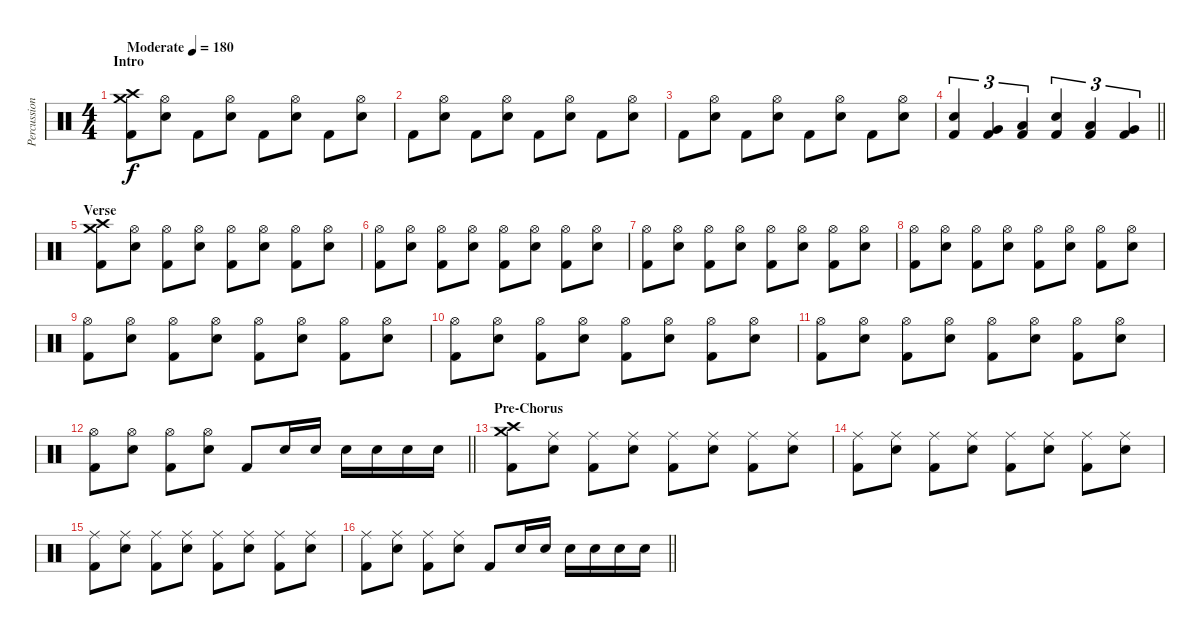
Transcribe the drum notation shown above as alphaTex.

\track ("Percussion" "Percussion") {instrument percussion}
\staff {score}
\articulation defaults
\ts (4 4)
\section ("" "Intro")
\tempo (180 "Moderate")
\clef neutral
\ks c
("Crash high (hit)" "Crash medium (hit)" "Kick (hit) 2").8{dy f} ("Hi-Hat (open)" "Electric Snare (hit)").8 "Kick (hit) 2".8 ("Hi-Hat (open)" "Electric Snare (hit)").8 "Kick (hit) 2".8 ("Hi-Hat (open)" "Electric Snare (hit)").8 "Kick (hit) 2".8 ("Hi-Hat (open)" "Electric Snare (hit)").8 |
"Kick (hit) 2".8 ("Hi-Hat (open)" "Electric Snare (hit)").8 "Kick (hit) 2".8 ("Hi-Hat (open)" "Electric Snare (hit)").8 "Kick (hit) 2".8 ("Hi-Hat (open)" "Electric Snare (hit)").8 "Kick (hit) 2".8 ("Hi-Hat (open)" "Electric Snare (hit)").8 |
"Kick (hit) 2".8 ("Hi-Hat (open)" "Electric Snare (hit)").8 "Kick (hit) 2".8 ("Hi-Hat (open)" "Electric Snare (hit)").8 "Kick (hit) 2".8 ("Hi-Hat (open)" "Electric Snare (hit)").8 "Kick (hit) 2".8 ("Hi-Hat (open)" "Electric Snare (hit)").8 |
\barLineRight lightlight
("Electric Snare (hit)" "Kick (hit) 2").4{tu (3 2)} ("Very Low Tom (hit)" "Kick (hit) 2").4{tu (3 2)} ("Low Floor Tom (hit)" "Kick (hit) 2").4{tu (3 2)} ("Electric Snare (hit)" "Kick (hit) 2").4{tu (3 2)} ("Low Floor Tom (hit)" "Kick (hit) 2").4{tu (3 2)} ("Very Low Tom (hit)" "Kick (hit) 2").4{tu (3 2)} |
\section ("" "Verse")
("Crash high (hit)" "Crash medium (hit)" "Kick (hit) 2").8 ("Hi-Hat (open)" "Electric Snare (hit)").8 ("Hi-Hat (open)" "Kick (hit) 2").8 ("Hi-Hat (open)" "Electric Snare (hit)").8 ("Hi-Hat (open)" "Kick (hit) 2").8 ("Hi-Hat (open)" "Electric Snare (hit)").8 ("Hi-Hat (open)" "Kick (hit) 2").8 ("Hi-Hat (open)" "Electric Snare (hit)").8 |
("Hi-Hat (open)" "Kick (hit) 2").8 ("Hi-Hat (open)" "Electric Snare (hit)").8 ("Hi-Hat (open)" "Kick (hit) 2").8 ("Hi-Hat (open)" "Electric Snare (hit)").8 ("Hi-Hat (open)" "Kick (hit) 2").8 ("Hi-Hat (open)" "Electric Snare (hit)").8 ("Hi-Hat (open)" "Kick (hit) 2").8 ("Hi-Hat (open)" "Electric Snare (hit)").8 |
("Hi-Hat (open)" "Kick (hit) 2").8 ("Hi-Hat (open)" "Electric Snare (hit)").8 ("Hi-Hat (open)" "Kick (hit) 2").8 ("Hi-Hat (open)" "Electric Snare (hit)").8 ("Hi-Hat (open)" "Kick (hit) 2").8 ("Hi-Hat (open)" "Electric Snare (hit)").8 ("Hi-Hat (open)" "Kick (hit) 2").8 ("Hi-Hat (open)" "Electric Snare (hit)").8 |
("Hi-Hat (open)" "Kick (hit) 2").8 ("Hi-Hat (open)" "Electric Snare (hit)").8 ("Hi-Hat (open)" "Kick (hit) 2").8 ("Hi-Hat (open)" "Electric Snare (hit)").8 ("Hi-Hat (open)" "Kick (hit) 2").8 ("Hi-Hat (open)" "Electric Snare (hit)").8 ("Hi-Hat (open)" "Kick (hit) 2").8 ("Hi-Hat (open)" "Electric Snare (hit)").8 |
("Hi-Hat (open)" "Kick (hit) 2").8 ("Hi-Hat (open)" "Electric Snare (hit)").8 ("Hi-Hat (open)" "Kick (hit) 2").8 ("Hi-Hat (open)" "Electric Snare (hit)").8 ("Hi-Hat (open)" "Kick (hit) 2").8 ("Hi-Hat (open)" "Electric Snare (hit)").8 ("Hi-Hat (open)" "Kick (hit) 2").8 ("Hi-Hat (open)" "Electric Snare (hit)").8 |
("Hi-Hat (open)" "Kick (hit) 2").8 ("Hi-Hat (open)" "Electric Snare (hit)").8 ("Hi-Hat (open)" "Kick (hit) 2").8 ("Hi-Hat (open)" "Electric Snare (hit)").8 ("Hi-Hat (open)" "Kick (hit) 2").8 ("Hi-Hat (open)" "Electric Snare (hit)").8 ("Hi-Hat (open)" "Kick (hit) 2").8 ("Hi-Hat (open)" "Electric Snare (hit)").8 |
("Hi-Hat (open)" "Kick (hit) 2").8 ("Hi-Hat (open)" "Electric Snare (hit)").8 ("Hi-Hat (open)" "Kick (hit) 2").8 ("Hi-Hat (open)" "Electric Snare (hit)").8 ("Hi-Hat (open)" "Kick (hit) 2").8 ("Hi-Hat (open)" "Electric Snare (hit)").8 ("Hi-Hat (open)" "Kick (hit) 2").8 ("Hi-Hat (open)" "Electric Snare (hit)").8 |
\barLineRight lightlight
("Hi-Hat (open)" "Kick (hit) 2").8 ("Hi-Hat (open)" "Electric Snare (hit)").8 ("Hi-Hat (open)" "Kick (hit) 2").8 ("Hi-Hat (open)" "Electric Snare (hit)").8 "Kick (hit) 2".8 "Electric Snare (hit)".16 "Electric Snare (hit)".16 "Electric Snare (hit)".16 "Electric Snare (hit)".16 "Electric Snare (hit)".16 "Electric Snare (hit)".16 |
\section ("" "Pre-Chorus")
("Crash high (hit)" "Crash medium (hit)" "Kick (hit) 2").8 ("Ride (middle)" "Electric Snare (hit)").8 ("Ride (middle)" "Kick (hit) 2").8 ("Ride (middle)" "Electric Snare (hit)").8 ("Ride (middle)" "Kick (hit) 2").8 ("Ride (middle)" "Electric Snare (hit)").8 ("Ride (middle)" "Kick (hit) 2").8 ("Ride (middle)" "Electric Snare (hit)").8 |
("Ride (middle)" "Kick (hit) 2").8 ("Ride (middle)" "Electric Snare (hit)").8 ("Ride (middle)" "Kick (hit) 2").8 ("Ride (middle)" "Electric Snare (hit)").8 ("Ride (middle)" "Kick (hit) 2").8 ("Ride (middle)" "Electric Snare (hit)").8 ("Ride (middle)" "Kick (hit) 2").8 ("Ride (middle)" "Electric Snare (hit)").8 |
("Ride (middle)" "Kick (hit) 2").8 ("Ride (middle)" "Electric Snare (hit)").8 ("Ride (middle)" "Kick (hit) 2").8 ("Ride (middle)" "Electric Snare (hit)").8 ("Ride (middle)" "Kick (hit) 2").8 ("Ride (middle)" "Electric Snare (hit)").8 ("Ride (middle)" "Kick (hit) 2").8 ("Ride (middle)" "Electric Snare (hit)").8 |
\barLineRight lightlight
("Ride (middle)" "Kick (hit) 2").8 ("Ride (middle)" "Electric Snare (hit)").8 ("Ride (middle)" "Kick (hit) 2").8 ("Ride (middle)" "Electric Snare (hit)").8 "Kick (hit) 2".8 "Electric Snare (hit)".16 "Electric Snare (hit)".16 "Electric Snare (hit)".16 "Electric Snare (hit)".16 "Electric Snare (hit)".16 "Electric Snare (hit)".16
